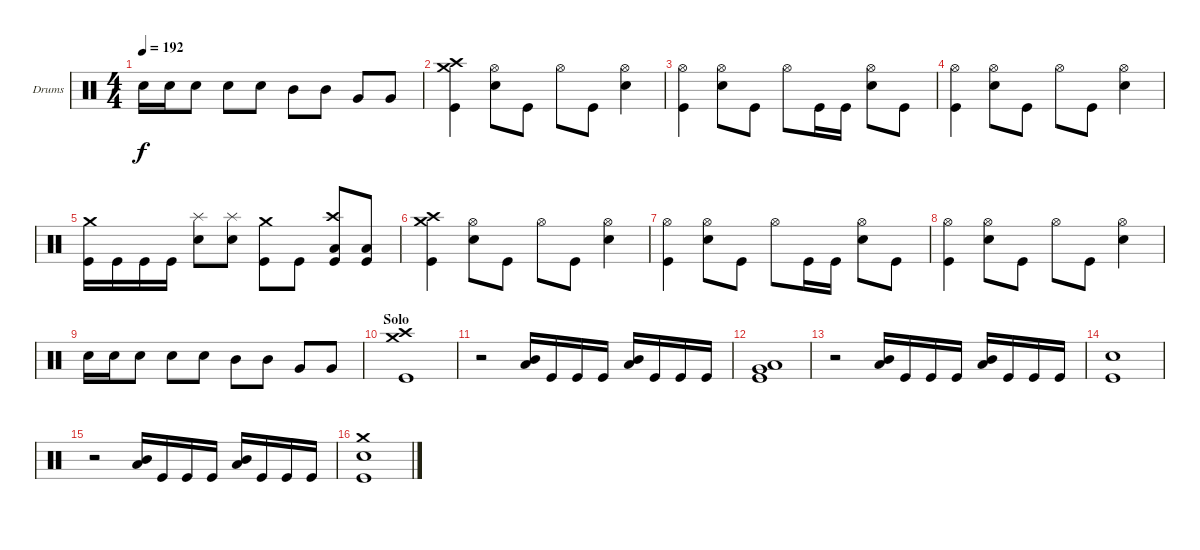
\bracketExtendMode groupsimilarinstruments
\firstSystemTrackNameOrientation horizontal
\otherSystemsTrackNameOrientation horizontal
\track ("Corey Friedlander" "Drums") {instrument percussion}
\staff {score}
\articulation defaults
\ts (4 4)
\tempo 192
\clef neutral
\ks aminor "Snare (hit) 2".16{dy f} "Snare (hit) 2".16 "Snare (hit) 2".8 "Snare (hit) 2".8 "Snare (hit) 2".8 "Mid Tom (hit)".8 "Mid Tom (hit)".8 "Very Low Tom (hit)".8 "Very Low Tom (hit)".8
|
("Kick (hit)" "Crash medium (hit)" "Crash high (hit)").4 ("Snare (hit) 2" "Hi-Hat (open)").8 "Kick (hit)".8 "Hi-Hat (open)".8 "Kick (hit)".8 ("Snare (hit) 2" "Hi-Hat (open)").4 |
("Kick (hit)" "Hi-Hat (open)").4 ("Snare (hit) 2" "Hi-Hat (open)").8 "Kick (hit)".8 "Hi-Hat (open)".8 "Kick (hit)".16 "Kick (hit)".16 ("Snare (hit) 2" "Hi-Hat (open)").8 "Kick (hit)".8 |
("Kick (hit)" "Hi-Hat (open)").4 ("Snare (hit) 2" "Hi-Hat (open)").8 "Kick (hit)".8 "Hi-Hat (open)".8 "Kick (hit)".8 ("Snare (hit) 2" "Hi-Hat (open)").4 |
("Kick (hit)" "Crash medium (hit)").16 "Kick (hit)".16 "Kick (hit)".16 "Kick (hit)".16 ("Snare (hit) 2" "Splash (hit)").8 ("Snare (hit) 2" "Splash (hit)").8 ("Kick (hit)" "Crash medium (hit)").8 "Kick (hit)".8 ("Kick (hit)" "Low Tom (hit)" "Crash high (hit)").8 ("Low Tom (hit)" "Kick (hit)").8 |
("Kick (hit)" "Crash medium (hit)" "Crash high (hit)").4 ("Snare (hit) 2" "Hi-Hat (open)").8 "Kick (hit)".8 "Hi-Hat (open)".8 "Kick (hit)".8 ("Snare (hit) 2" "Hi-Hat (open)").4 |
("Kick (hit)" "Hi-Hat (open)").4 ("Snare (hit) 2" "Hi-Hat (open)").8 "Kick (hit)".8 "Hi-Hat (open)".8 "Kick (hit)".16 "Kick (hit)".16 ("Snare (hit) 2" "Hi-Hat (open)").8 "Kick (hit)".8 |
("Kick (hit)" "Hi-Hat (open)").4 ("Snare (hit) 2" "Hi-Hat (open)").8 "Kick (hit)".8 "Hi-Hat (open)".8 "Kick (hit)".8 ("Snare (hit) 2" "Hi-Hat (open)").4 |
"Snare (hit) 2".16 "Snare (hit) 2".16 "Snare (hit) 2".8 "Snare (hit) 2".8 "Snare (hit) 2".8 "Mid Tom (hit)".8 "Mid Tom (hit)".8 "Very Low Tom (hit)".8 "Very Low Tom (hit)".8 |
\section ("" "Solo")
("Kick (hit)" "Crash high (hit)" "Crash medium (hit)").1 |
r.2 ("Low Tom (hit)" "Mid Tom (hit)").16 "Kick (hit)".16 "Kick (hit)".16 "Kick (hit)".16 ("Low Tom (hit)" "Mid Tom (hit)").16 "Kick (hit)".16 "Kick (hit)".16 "Kick (hit)".16 |
("Kick (hit)" "Very Low Tom (hit)" "Low Tom (hit)").1 |
r.2 ("Low Tom (hit)" "Mid Tom (hit)").16 "Kick (hit)".16 "Kick (hit)".16 "Kick (hit)".16 ("Low Tom (hit)" "Mid Tom (hit)").16 "Kick (hit)".16 "Kick (hit)".16 "Kick (hit)".16 |
("Kick (hit)" "Snare (hit) 2").1 |
r.2 ("Low Tom (hit)" "Mid Tom (hit)").16 "Kick (hit)".16 "Kick (hit)".16 "Kick (hit)".16 ("Low Tom (hit)" "Mid Tom (hit)").16 "Kick (hit)".16 "Kick (hit)".16 "Kick (hit)".16 |
("Kick (hit)" "Snare (hit) 2" "Crash medium (hit)").1
